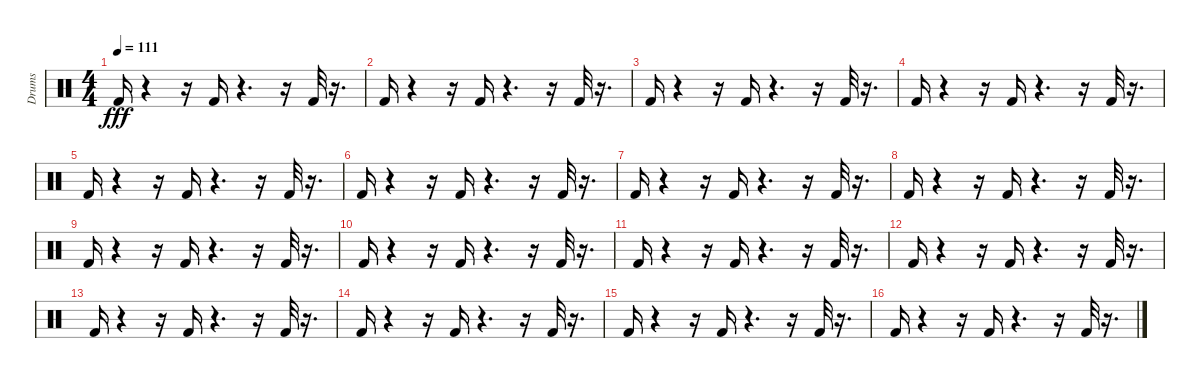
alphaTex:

\track ("Drums" "Drums") {instrument percussion}
\staff {score}
\articulation defaults
\ts (4 4)
\tempo 111
\clef neutral
\ks c "Kick (hit) 2".16{dy fff}
r.4 r.16 "Kick (hit) 2".16 r.4{d} r.16 "Kick (hit) 2".32 r.16{d} |
"Kick (hit) 2".16 r.4 r.16 "Kick (hit) 2".16 r.4{d} r.16 "Kick (hit) 2".32 r.16{d} |
"Kick (hit) 2".16 r.4 r.16 "Kick (hit) 2".16 r.4{d} r.16 "Kick (hit) 2".32 r.16{d} |
"Kick (hit) 2".16 r.4 r.16 "Kick (hit) 2".16 r.4{d} r.16 "Kick (hit) 2".32 r.16{d} |
"Kick (hit) 2".16 r.4 r.16 "Kick (hit) 2".16 r.4{d} r.16 "Kick (hit) 2".32 r.16{d} |
"Kick (hit) 2".16 r.4 r.16 "Kick (hit) 2".16 r.4{d} r.16 "Kick (hit) 2".32 r.16{d} |
"Kick (hit) 2".16 r.4 r.16 "Kick (hit) 2".16 r.4{d} r.16 "Kick (hit) 2".32 r.16{d} |
"Kick (hit) 2".16 r.4 r.16 "Kick (hit) 2".16 r.4{d} r.16 "Kick (hit) 2".32 r.16{d} |
"Kick (hit) 2".16 r.4 r.16 "Kick (hit) 2".16 r.4{d} r.16 "Kick (hit) 2".32 r.16{d} |
"Kick (hit) 2".16 r.4 r.16 "Kick (hit) 2".16 r.4{d} r.16 "Kick (hit) 2".32 r.16{d} |
"Kick (hit) 2".16 r.4 r.16 "Kick (hit) 2".16 r.4{d} r.16 "Kick (hit) 2".32 r.16{d} |
"Kick (hit) 2".16 r.4 r.16 "Kick (hit) 2".16 r.4{d} r.16 "Kick (hit) 2".32 r.16{d} |
"Kick (hit) 2".16 r.4 r.16 "Kick (hit) 2".16 r.4{d} r.16 "Kick (hit) 2".32 r.16{d} |
"Kick (hit) 2".16 r.4 r.16 "Kick (hit) 2".16 r.4{d} r.16 "Kick (hit) 2".32 r.16{d} |
"Kick (hit) 2".16 r.4 r.16 "Kick (hit) 2".16 r.4{d} r.16 "Kick (hit) 2".32 r.16{d} |
"Kick (hit) 2".16 r.4 r.16 "Kick (hit) 2".16 r.4{d} r.16 "Kick (hit) 2".32 r.16{d}
